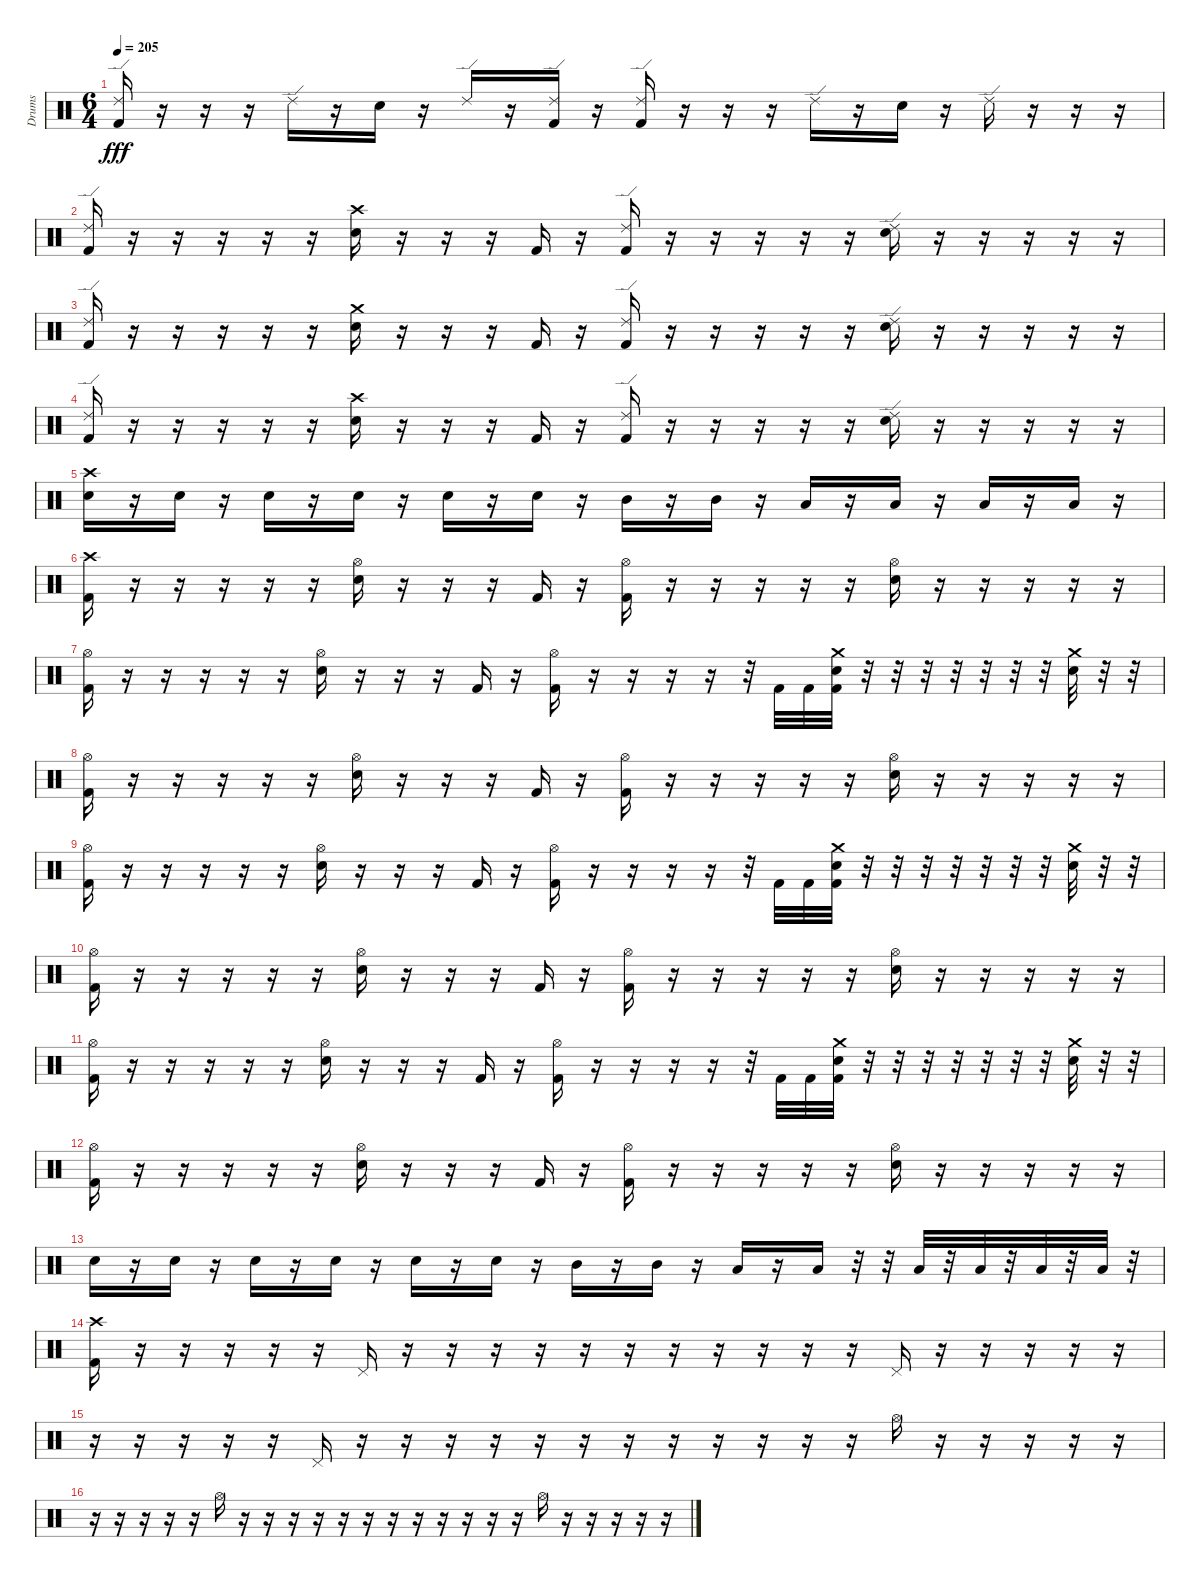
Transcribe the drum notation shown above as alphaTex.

\track ("Drums" "Drums") {instrument percussion}
\staff {score}
\articulation defaults
\ts (6 4)
\tempo 205
\clef neutral
\ks c
("Ride (edge) 2" "Kick (hit) 2").16{dy fff} r.16 r.16 r.16 "Ride (edge) 2".16 r.16 "Snare (hit) 2".16 r.16 "Ride (edge) 2".16 r.16 ("Ride (edge) 2" "Kick (hit) 2").16 r.16 ("Ride (edge) 2" "Kick (hit) 2").16 r.16 r.16 r.16 "Ride (edge) 2".16 r.16 "Snare (hit) 2".16 r.16 "Ride (edge) 2".16 r.16 r.16 r.16 |
("Ride (edge) 2" "Kick (hit) 2").16 r.16 r.16 r.16 r.16 r.16 ("Crash high (hit)" "Snare (hit) 2").16 r.16 r.16 r.16 "Kick (hit) 2".16 r.16 ("Ride (edge) 2" "Kick (hit) 2").16 r.16 r.16 r.16 r.16 r.16 ("Ride (edge) 2" "Snare (hit) 2").16 r.16 r.16 r.16 r.16 r.16 |
("Ride (edge) 2" "Kick (hit) 2").16 r.16 r.16 r.16 r.16 r.16 ("Crash medium (hit)" "Snare (hit) 2").16 r.16 r.16 r.16 "Kick (hit) 2".16 r.16 ("Ride (edge) 2" "Kick (hit) 2").16 r.16 r.16 r.16 r.16 r.16 ("Ride (edge) 2" "Snare (hit) 2").16 r.16 r.16 r.16 r.16 r.16 |
("Ride (edge) 2" "Kick (hit) 2").16 r.16 r.16 r.16 r.16 r.16 ("Crash high (hit)" "Snare (hit) 2").16 r.16 r.16 r.16 "Kick (hit) 2".16 r.16 ("Ride (edge) 2" "Kick (hit) 2").16 r.16 r.16 r.16 r.16 r.16 ("Ride (edge) 2" "Snare (hit) 2").16 r.16 r.16 r.16 r.16 r.16 |
("Crash high (hit)" "Snare (hit) 2").16 r.16 "Snare (hit) 2".16 r.16 "Snare (hit) 2".16 r.16 "Snare (hit) 2".16 r.16 "Snare (hit) 2".16 r.16 "Snare (hit) 2".16 r.16 "Mid Tom (hit)".16 r.16 "Mid Tom (hit)".16 r.16 "Low Tom (hit)".16 r.16 "Low Tom (hit)".16 r.16 "Low Tom (hit)".16 r.16 "Low Tom (hit)".16 r.16 |
("Crash high (hit)" "Kick (hit) 2").16 r.16 r.16 r.16 r.16 r.16 ("Hi-Hat (open)" "Snare (hit) 2").16 r.16 r.16 r.16 "Kick (hit) 2".16 r.16 ("Hi-Hat (open)" "Kick (hit) 2").16 r.16 r.16 r.16 r.16 r.16 ("Hi-Hat (open)" "Snare (hit) 2").16 r.16 r.16 r.16 r.16 r.16 |
("Hi-Hat (open)" "Kick (hit) 2").16 r.16 r.16 r.16 r.16 r.16 ("Hi-Hat (open)" "Snare (hit) 2").16 r.16 r.16 r.16 "Kick (hit) 2".16 r.16 ("Hi-Hat (open)" "Kick (hit) 2").16 r.16 r.16 r.16 r.16 r.32 "Kick (hit) 2".32 "Kick (hit) 2".32 ("Crash medium (hit)" "Snare (hit) 2" "Kick (hit) 2").32 r.32 r.32 r.32 r.32 r.32 r.32 r.32 ("Crash medium (hit)" "Snare (hit) 2").32 r.32 r.32 |
("Hi-Hat (open)" "Kick (hit) 2").16 r.16 r.16 r.16 r.16 r.16 ("Hi-Hat (open)" "Snare (hit) 2").16 r.16 r.16 r.16 "Kick (hit) 2".16 r.16 ("Hi-Hat (open)" "Kick (hit) 2").16 r.16 r.16 r.16 r.16 r.16 ("Hi-Hat (open)" "Snare (hit) 2").16 r.16 r.16 r.16 r.16 r.16 |
("Hi-Hat (open)" "Kick (hit) 2").16 r.16 r.16 r.16 r.16 r.16 ("Hi-Hat (open)" "Snare (hit) 2").16 r.16 r.16 r.16 "Kick (hit) 2".16 r.16 ("Hi-Hat (open)" "Kick (hit) 2").16 r.16 r.16 r.16 r.16 r.32 "Kick (hit) 2".32 "Kick (hit) 2".32 ("Crash medium (hit)" "Snare (hit) 2" "Kick (hit) 2").32 r.32 r.32 r.32 r.32 r.32 r.32 r.32 ("Crash medium (hit)" "Snare (hit) 2").32 r.32 r.32 |
("Hi-Hat (open)" "Kick (hit) 2").16 r.16 r.16 r.16 r.16 r.16 ("Hi-Hat (open)" "Snare (hit) 2").16 r.16 r.16 r.16 "Kick (hit) 2".16 r.16 ("Hi-Hat (open)" "Kick (hit) 2").16 r.16 r.16 r.16 r.16 r.16 ("Hi-Hat (open)" "Snare (hit) 2").16 r.16 r.16 r.16 r.16 r.16 |
("Hi-Hat (open)" "Kick (hit) 2").16 r.16 r.16 r.16 r.16 r.16 ("Hi-Hat (open)" "Snare (hit) 2").16 r.16 r.16 r.16 "Kick (hit) 2".16 r.16 ("Hi-Hat (open)" "Kick (hit) 2").16 r.16 r.16 r.16 r.16 r.32 "Kick (hit) 2".32 "Kick (hit) 2".32 ("Crash medium (hit)" "Snare (hit) 2" "Kick (hit) 2").32 r.32 r.32 r.32 r.32 r.32 r.32 r.32 ("Crash medium (hit)" "Snare (hit) 2").32 r.32 r.32 |
("Hi-Hat (open)" "Kick (hit) 2").16 r.16 r.16 r.16 r.16 r.16 ("Hi-Hat (open)" "Snare (hit) 2").16 r.16 r.16 r.16 "Kick (hit) 2".16 r.16 ("Hi-Hat (open)" "Kick (hit) 2").16 r.16 r.16 r.16 r.16 r.16 ("Hi-Hat (open)" "Snare (hit) 2").16 r.16 r.16 r.16 r.16 r.16 |
"Snare (hit) 2".16 r.16 "Snare (hit) 2".16 r.16 "Snare (hit) 2".16 r.16 "Snare (hit) 2".16 r.16 "Snare (hit) 2".16 r.16 "Snare (hit) 2".16 r.16 "Mid Tom (hit)".16 r.16 "Mid Tom (hit)".16 r.16 "Low Tom (hit)".16 r.16 "Low Tom (hit)".16 r.32 r.32 "Low Tom (hit)".32 r.32 "Low Tom (hit)".32 r.32 "Low Tom (hit)".32 r.32 "Low Tom (hit)".32 r.32 |
("Crash high (hit)" "Kick (hit) 2").16 r.16 r.16 r.16 r.16 r.16 "Pedal Hi-Hat (hit)".16 r.16 r.16 r.16 r.16 r.16 r.16 r.16 r.16 r.16 r.16 r.16 "Pedal Hi-Hat (hit)".16 r.16 r.16 r.16 r.16 r.16 |
r.16 r.16 r.16 r.16 r.16 "Pedal Hi-Hat (hit)".16 r.16 r.16 r.16 r.16 r.16 r.16 r.16 r.16 r.16 r.16 r.16 r.16 "Hi-Hat (open)".16 r.16 r.16 r.16 r.16 r.16 |
r.16 r.16 r.16 r.16 r.16 "Hi-Hat (open)".16 r.16 r.16 r.16 r.16 r.16 r.16 r.16 r.16 r.16 r.16 r.16 r.16 "Hi-Hat (open)".16 r.16 r.16 r.16 r.16 r.16
